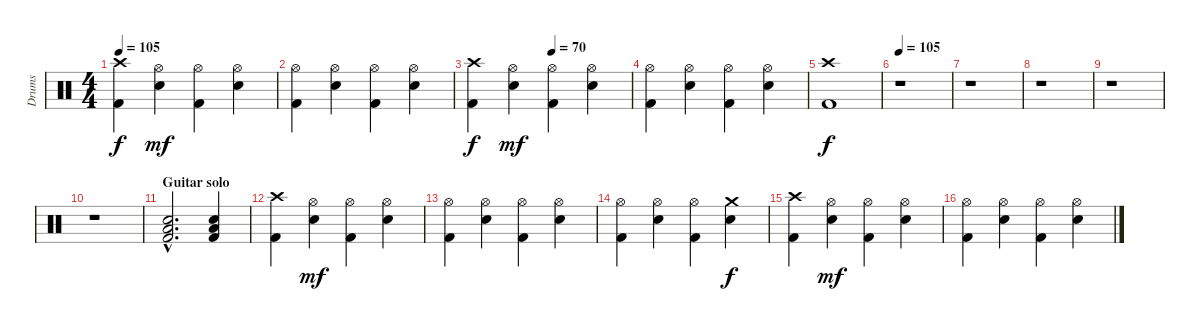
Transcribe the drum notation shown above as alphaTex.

\track ("Drums" "Drums") {instrument percussion}
\staff {score}
\articulation defaults
\ts (4 4)
\tempo 105
\clef neutral
\ks c
("Crash high (hit)" "Kick (hit) 2").4{dy f} ("Hi-Hat (open)" "Electric Snare (hit)").4{dy mf} ("Hi-Hat (open)" "Kick (hit) 2").4 ("Hi-Hat (open)" "Electric Snare (hit)").4 |
("Hi-Hat (open)" "Kick (hit) 2").4 ("Hi-Hat (open)" "Electric Snare (hit)").4 ("Hi-Hat (open)" "Kick (hit) 2").4 ("Hi-Hat (open)" "Electric Snare (hit)").4 |
\tempo (70 0.5)
("Crash high (hit)" "Kick (hit) 2").4{dy f} ("Hi-Hat (open)" "Electric Snare (hit)").4{dy mf} ("Hi-Hat (open)" "Kick (hit) 2").4 ("Hi-Hat (open)" "Electric Snare (hit)").4 |
("Hi-Hat (open)" "Kick (hit) 2").4 ("Hi-Hat (open)" "Electric Snare (hit)").4 ("Hi-Hat (open)" "Kick (hit) 2").4 ("Hi-Hat (open)" "Electric Snare (hit)").4 |
("Crash high (hit)" "Kick (hit) 2").1{dy f} |
\tempo 105
r.1 |
r.1 |
r.1 |
r.1 |
r.1 |
\section ("" "Guitar solo")
("Low Floor Tom (hit)"{hac} "Electric Snare (hit)"{hac} "Kick (hit) 2"{hac}).2{d} ("Low Floor Tom (hit)" "Electric Snare (hit)" "Kick (hit) 2").4 |
("Crash high (hit)" "Kick (hit) 2").4 ("Hi-Hat (open)" "Electric Snare (hit)").4{dy mf} ("Hi-Hat (open)" "Kick (hit) 2").4 ("Hi-Hat (open)" "Electric Snare (hit)").4 |
("Hi-Hat (open)" "Kick (hit) 2").4 ("Hi-Hat (open)" "Electric Snare (hit)").4 ("Hi-Hat (open)" "Kick (hit) 2").4 ("Hi-Hat (open)" "Electric Snare (hit)").4 |
("Hi-Hat (open)" "Kick (hit) 2").4 ("Hi-Hat (open)" "Electric Snare (hit)").4 ("Hi-Hat (open)" "Kick (hit) 2").4 ("Crash medium (hit)" "Electric Snare (hit)").4{dy f} |
("Crash high (hit)" "Kick (hit) 2").4 ("Hi-Hat (open)" "Electric Snare (hit)").4{dy mf} ("Hi-Hat (open)" "Kick (hit) 2").4 ("Hi-Hat (open)" "Electric Snare (hit)").4 |
("Hi-Hat (open)" "Kick (hit) 2").4 ("Hi-Hat (open)" "Electric Snare (hit)").4 ("Hi-Hat (open)" "Kick (hit) 2").4 ("Hi-Hat (open)" "Electric Snare (hit)").4
